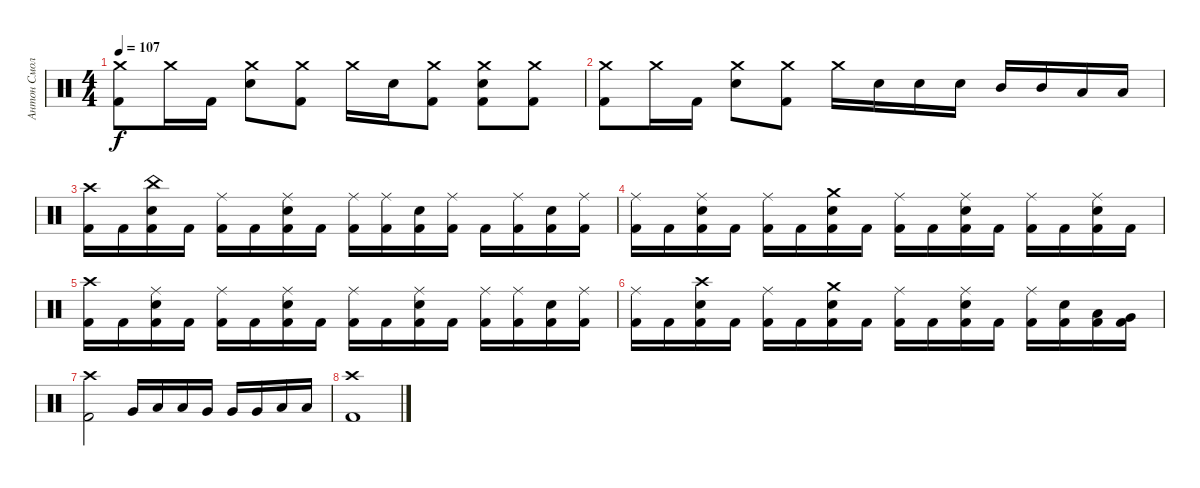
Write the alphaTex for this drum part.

\track ("Антон Смольянин" "Антон Смол") {instrument percussion}
\staff {score}
\articulation defaults
\ts (4 4)
\tempo 107
\clef neutral
\ks c
("Crash medium (hit)" "Kick (hit) 2").8{dy f} "Crash medium (hit)".16 "Kick (hit) 2".16 ("Crash medium (hit)" "Electric Snare (hit)").8 ("Crash medium (hit)" "Kick (hit) 2").8 "Crash medium (hit)".16 "Electric Snare (hit)".16 ("Crash medium (hit)" "Kick (hit) 2").8 ("Crash medium (hit)" "Electric Snare (hit)" "Kick (hit) 2").8 ("Crash medium (hit)" "Kick (hit) 2").8 |
("Crash medium (hit)" "Kick (hit) 2").8 "Crash medium (hit)".16 "Kick (hit) 2".16 ("Crash medium (hit)" "Electric Snare (hit)").8 ("Crash medium (hit)" "Kick (hit) 2").8 "Crash medium (hit)".16 "Electric Snare (hit)".16 "Electric Snare (hit)".16 "Electric Snare (hit)".16 "Mid Tom (hit)".16 "Mid Tom (hit)".16 "Low Tom (hit)".16 "Low Tom (hit)".16 |
("Crash high (hit)" "Kick (hit) 2").16 "Kick (hit) 2".16 ("China (hit)" "Electric Snare (hit)" "Kick (hit) 2").16 "Kick (hit) 2".16 ("Ride (middle)" "Kick (hit) 2").16 "Kick (hit) 2".16 ("Ride (middle)" "Electric Snare (hit)" "Kick (hit) 2").16 "Kick (hit) 2".16 ("Ride (middle)" "Kick (hit) 2").16 ("Ride (middle)" "Kick (hit) 2").16 ("Electric Snare (hit)" "Kick (hit) 2").16 ("Ride (middle)" "Kick (hit) 2").16 "Kick (hit) 2".16 ("Ride (middle)" "Kick (hit) 2").16 ("Electric Snare (hit)" "Kick (hit) 2").16 ("Ride (middle)" "Kick (hit) 2").16 |
("Ride (middle)" "Kick (hit) 2").16 "Kick (hit) 2".16 ("Ride (middle)" "Electric Snare (hit)" "Kick (hit) 2").16 "Kick (hit) 2".16 ("Ride (middle)" "Kick (hit) 2").16 "Kick (hit) 2".16 ("Crash medium (hit)" "Electric Snare (hit)" "Kick (hit) 2").16 "Kick (hit) 2".16 ("Ride (middle)" "Kick (hit) 2").16 "Kick (hit) 2".16 ("Ride (middle)" "Electric Snare (hit)" "Kick (hit) 2").16 "Kick (hit) 2".16 ("Ride (middle)" "Kick (hit) 2").16 "Kick (hit) 2".16 ("Ride (middle)" "Electric Snare (hit)" "Kick (hit) 2").16 "Kick (hit) 2".16 |
("Crash high (hit)" "Kick (hit) 2").16 "Kick (hit) 2".16 ("Ride (middle)" "Electric Snare (hit)" "Kick (hit) 2").16 "Kick (hit) 2".16 ("Ride (middle)" "Kick (hit) 2").16 "Kick (hit) 2".16 ("Ride (middle)" "Electric Snare (hit)" "Kick (hit) 2").16 "Kick (hit) 2".16 ("Ride (middle)" "Kick (hit) 2").16 "Kick (hit) 2".16 ("Ride (middle)" "Electric Snare (hit)" "Kick (hit) 2").16 "Kick (hit) 2".16 ("Ride (middle)" "Kick (hit) 2").16 ("Ride (middle)" "Kick (hit) 2").16 ("Electric Snare (hit)" "Kick (hit) 2").16 ("Ride (middle)" "Kick (hit) 2").16 |
("Ride (middle)" "Kick (hit) 2").16 "Kick (hit) 2".16 ("Crash high (hit)" "Electric Snare (hit)" "Kick (hit) 2").16 "Kick (hit) 2".16 ("Ride (middle)" "Kick (hit) 2").16 "Kick (hit) 2".16 ("Crash medium (hit)" "Electric Snare (hit)" "Kick (hit) 2").16 "Kick (hit) 2".16 ("Ride (middle)" "Kick (hit) 2").16 "Kick (hit) 2".16 ("Ride (middle)" "Electric Snare (hit)" "Kick (hit) 2").16 "Kick (hit) 2".16 ("Ride (middle)" "Kick (hit) 2").16 ("Electric Snare (hit)" "Kick (hit) 2").16 ("Low Tom (hit)" "Kick (hit) 2").16 ("Very Low Tom (hit)" "Kick (hit) 2").16 |
("Crash high (hit)" "Kick (hit) 2").2 "Very Low Tom (hit)".16 "Low Tom (hit)".16 "Low Tom (hit)".16 "Very Low Tom (hit)".16 "Very Low Tom (hit)".16 "Very Low Tom (hit)".16 "Low Floor Tom (hit)".16 "Low Floor Tom (hit)".16 |
("Crash high (hit)" "Kick (hit) 2").1
